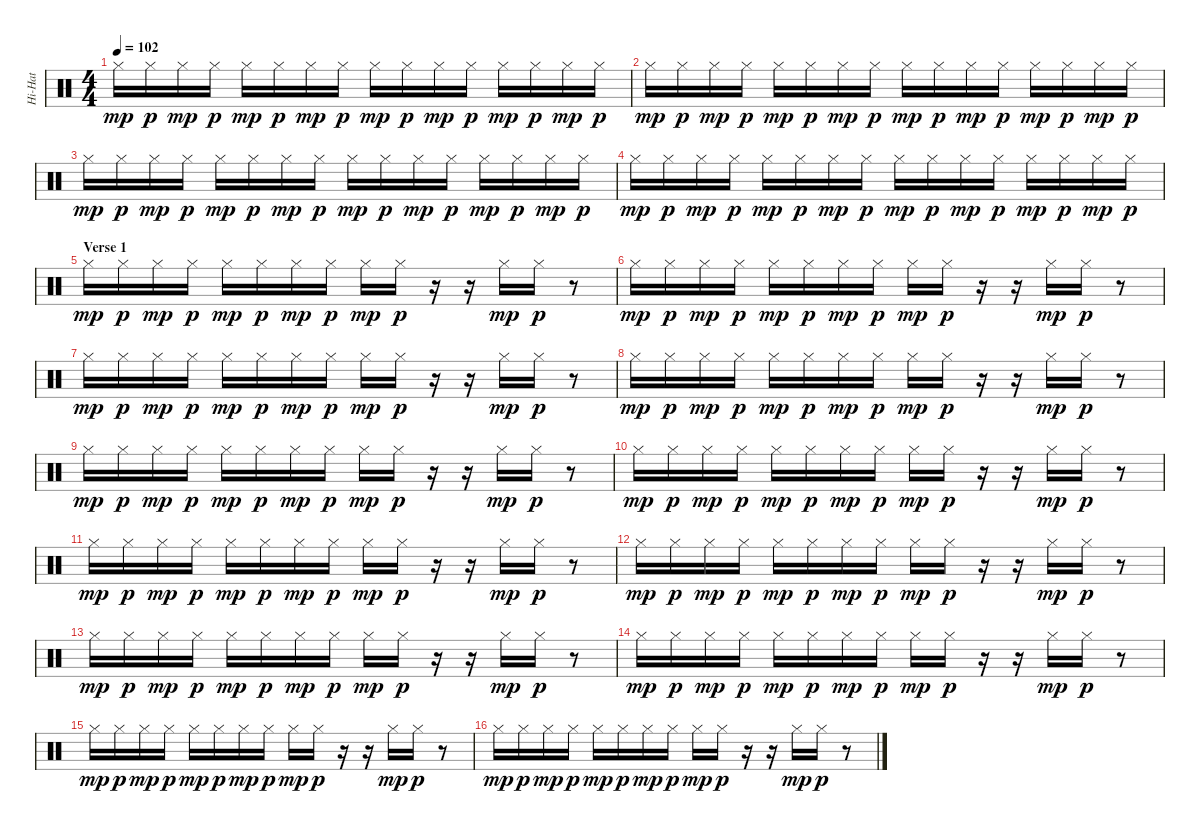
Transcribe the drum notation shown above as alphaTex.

\track ("Hi-Hat" "Hi-Hat") {instrument percussion}
\staff {score}
\articulation defaults
\ts (4 4)
\tempo 102
\clef neutral
\ks c "Hi-Hat (closed)".16{dy mp} "Hi-Hat (closed)".16{dy p} "Hi-Hat (closed)".16{dy mp} "Hi-Hat (closed)".16{dy p} "Hi-Hat (closed)".16{dy mp} "Hi-Hat (closed)".16{dy p} "Hi-Hat (closed)".16{dy mp} "Hi-Hat (closed)".16{dy p} "Hi-Hat (closed)".16{dy mp} "Hi-Hat (closed)".16{dy p} "Hi-Hat (closed)".16{dy mp} "Hi-Hat (closed)".16{dy p} "Hi-Hat (closed)".16{dy mp} "Hi-Hat (closed)".16{dy p} "Hi-Hat (closed)".16{dy mp} "Hi-Hat (closed)".16{dy p}
|
"Hi-Hat (closed)".16{dy mp} "Hi-Hat (closed)".16{dy p} "Hi-Hat (closed)".16{dy mp} "Hi-Hat (closed)".16{dy p} "Hi-Hat (closed)".16{dy mp} "Hi-Hat (closed)".16{dy p} "Hi-Hat (closed)".16{dy mp} "Hi-Hat (closed)".16{dy p} "Hi-Hat (closed)".16{dy mp} "Hi-Hat (closed)".16{dy p} "Hi-Hat (closed)".16{dy mp} "Hi-Hat (closed)".16{dy p} "Hi-Hat (closed)".16{dy mp} "Hi-Hat (closed)".16{dy p} "Hi-Hat (closed)".16{dy mp} "Hi-Hat (closed)".16{dy p} |
"Hi-Hat (closed)".16{dy mp} "Hi-Hat (closed)".16{dy p} "Hi-Hat (closed)".16{dy mp} "Hi-Hat (closed)".16{dy p} "Hi-Hat (closed)".16{dy mp} "Hi-Hat (closed)".16{dy p} "Hi-Hat (closed)".16{dy mp} "Hi-Hat (closed)".16{dy p} "Hi-Hat (closed)".16{dy mp} "Hi-Hat (closed)".16{dy p} "Hi-Hat (closed)".16{dy mp} "Hi-Hat (closed)".16{dy p} "Hi-Hat (closed)".16{dy mp} "Hi-Hat (closed)".16{dy p} "Hi-Hat (closed)".16{dy mp} "Hi-Hat (closed)".16{dy p} |
"Hi-Hat (closed)".16{dy mp} "Hi-Hat (closed)".16{dy p} "Hi-Hat (closed)".16{dy mp} "Hi-Hat (closed)".16{dy p} "Hi-Hat (closed)".16{dy mp} "Hi-Hat (closed)".16{dy p} "Hi-Hat (closed)".16{dy mp} "Hi-Hat (closed)".16{dy p} "Hi-Hat (closed)".16{dy mp} "Hi-Hat (closed)".16{dy p} "Hi-Hat (closed)".16{dy mp} "Hi-Hat (closed)".16{dy p} "Hi-Hat (closed)".16{dy mp} "Hi-Hat (closed)".16{dy p} "Hi-Hat (closed)".16{dy mp} "Hi-Hat (closed)".16{dy p} |
\section ("" "Verse 1")
"Hi-Hat (closed)".16{dy mp} "Hi-Hat (closed)".16{dy p} "Hi-Hat (closed)".16{dy mp} "Hi-Hat (closed)".16{dy p} "Hi-Hat (closed)".16{dy mp} "Hi-Hat (closed)".16{dy p} "Hi-Hat (closed)".16{dy mp} "Hi-Hat (closed)".16{dy p} "Hi-Hat (closed)".16{dy mp} "Hi-Hat (closed)".16{dy p} r.16 r.16 "Hi-Hat (closed)".16{dy mp} "Hi-Hat (closed)".16{dy p} r.8 |
"Hi-Hat (closed)".16{dy mp} "Hi-Hat (closed)".16{dy p} "Hi-Hat (closed)".16{dy mp} "Hi-Hat (closed)".16{dy p} "Hi-Hat (closed)".16{dy mp} "Hi-Hat (closed)".16{dy p} "Hi-Hat (closed)".16{dy mp} "Hi-Hat (closed)".16{dy p} "Hi-Hat (closed)".16{dy mp} "Hi-Hat (closed)".16{dy p} r.16 r.16 "Hi-Hat (closed)".16{dy mp} "Hi-Hat (closed)".16{dy p} r.8 |
"Hi-Hat (closed)".16{dy mp} "Hi-Hat (closed)".16{dy p} "Hi-Hat (closed)".16{dy mp} "Hi-Hat (closed)".16{dy p} "Hi-Hat (closed)".16{dy mp} "Hi-Hat (closed)".16{dy p} "Hi-Hat (closed)".16{dy mp} "Hi-Hat (closed)".16{dy p} "Hi-Hat (closed)".16{dy mp} "Hi-Hat (closed)".16{dy p} r.16 r.16 "Hi-Hat (closed)".16{dy mp} "Hi-Hat (closed)".16{dy p} r.8 |
"Hi-Hat (closed)".16{dy mp} "Hi-Hat (closed)".16{dy p} "Hi-Hat (closed)".16{dy mp} "Hi-Hat (closed)".16{dy p} "Hi-Hat (closed)".16{dy mp} "Hi-Hat (closed)".16{dy p} "Hi-Hat (closed)".16{dy mp} "Hi-Hat (closed)".16{dy p} "Hi-Hat (closed)".16{dy mp} "Hi-Hat (closed)".16{dy p} r.16 r.16 "Hi-Hat (closed)".16{dy mp} "Hi-Hat (closed)".16{dy p} r.8 |
"Hi-Hat (closed)".16{dy mp} "Hi-Hat (closed)".16{dy p} "Hi-Hat (closed)".16{dy mp} "Hi-Hat (closed)".16{dy p} "Hi-Hat (closed)".16{dy mp} "Hi-Hat (closed)".16{dy p} "Hi-Hat (closed)".16{dy mp} "Hi-Hat (closed)".16{dy p} "Hi-Hat (closed)".16{dy mp} "Hi-Hat (closed)".16{dy p} r.16 r.16 "Hi-Hat (closed)".16{dy mp} "Hi-Hat (closed)".16{dy p} r.8 |
"Hi-Hat (closed)".16{dy mp} "Hi-Hat (closed)".16{dy p} "Hi-Hat (closed)".16{dy mp} "Hi-Hat (closed)".16{dy p} "Hi-Hat (closed)".16{dy mp} "Hi-Hat (closed)".16{dy p} "Hi-Hat (closed)".16{dy mp} "Hi-Hat (closed)".16{dy p} "Hi-Hat (closed)".16{dy mp} "Hi-Hat (closed)".16{dy p} r.16 r.16 "Hi-Hat (closed)".16{dy mp} "Hi-Hat (closed)".16{dy p} r.8 |
"Hi-Hat (closed)".16{dy mp} "Hi-Hat (closed)".16{dy p} "Hi-Hat (closed)".16{dy mp} "Hi-Hat (closed)".16{dy p} "Hi-Hat (closed)".16{dy mp} "Hi-Hat (closed)".16{dy p} "Hi-Hat (closed)".16{dy mp} "Hi-Hat (closed)".16{dy p} "Hi-Hat (closed)".16{dy mp} "Hi-Hat (closed)".16{dy p} r.16 r.16 "Hi-Hat (closed)".16{dy mp} "Hi-Hat (closed)".16{dy p} r.8 |
"Hi-Hat (closed)".16{dy mp} "Hi-Hat (closed)".16{dy p} "Hi-Hat (closed)".16{dy mp} "Hi-Hat (closed)".16{dy p} "Hi-Hat (closed)".16{dy mp} "Hi-Hat (closed)".16{dy p} "Hi-Hat (closed)".16{dy mp} "Hi-Hat (closed)".16{dy p} "Hi-Hat (closed)".16{dy mp} "Hi-Hat (closed)".16{dy p} r.16 r.16 "Hi-Hat (closed)".16{dy mp} "Hi-Hat (closed)".16{dy p} r.8 |
"Hi-Hat (closed)".16{dy mp} "Hi-Hat (closed)".16{dy p} "Hi-Hat (closed)".16{dy mp} "Hi-Hat (closed)".16{dy p} "Hi-Hat (closed)".16{dy mp} "Hi-Hat (closed)".16{dy p} "Hi-Hat (closed)".16{dy mp} "Hi-Hat (closed)".16{dy p} "Hi-Hat (closed)".16{dy mp} "Hi-Hat (closed)".16{dy p} r.16 r.16 "Hi-Hat (closed)".16{dy mp} "Hi-Hat (closed)".16{dy p} r.8 |
"Hi-Hat (closed)".16{dy mp} "Hi-Hat (closed)".16{dy p} "Hi-Hat (closed)".16{dy mp} "Hi-Hat (closed)".16{dy p} "Hi-Hat (closed)".16{dy mp} "Hi-Hat (closed)".16{dy p} "Hi-Hat (closed)".16{dy mp} "Hi-Hat (closed)".16{dy p} "Hi-Hat (closed)".16{dy mp} "Hi-Hat (closed)".16{dy p} r.16 r.16 "Hi-Hat (closed)".16{dy mp} "Hi-Hat (closed)".16{dy p} r.8 |
"Hi-Hat (closed)".16{dy mp} "Hi-Hat (closed)".16{dy p} "Hi-Hat (closed)".16{dy mp} "Hi-Hat (closed)".16{dy p} "Hi-Hat (closed)".16{dy mp} "Hi-Hat (closed)".16{dy p} "Hi-Hat (closed)".16{dy mp} "Hi-Hat (closed)".16{dy p} "Hi-Hat (closed)".16{dy mp} "Hi-Hat (closed)".16{dy p} r.16 r.16 "Hi-Hat (closed)".16{dy mp} "Hi-Hat (closed)".16{dy p} r.8 |
"Hi-Hat (closed)".16{dy mp} "Hi-Hat (closed)".16{dy p} "Hi-Hat (closed)".16{dy mp} "Hi-Hat (closed)".16{dy p} "Hi-Hat (closed)".16{dy mp} "Hi-Hat (closed)".16{dy p} "Hi-Hat (closed)".16{dy mp} "Hi-Hat (closed)".16{dy p} "Hi-Hat (closed)".16{dy mp} "Hi-Hat (closed)".16{dy p} r.16 r.16 "Hi-Hat (closed)".16{dy mp} "Hi-Hat (closed)".16{dy p} r.8
